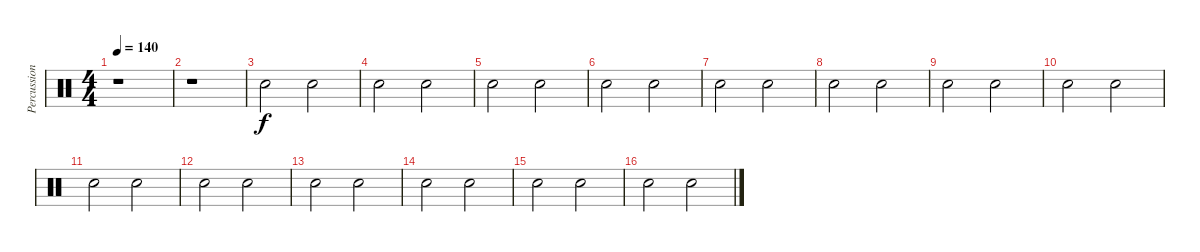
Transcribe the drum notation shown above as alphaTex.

\track ("Percussions" "Percussion") {instrument percussion}
\staff {score}
\articulation defaults
\ts (4 4)
\tempo 140
\clef neutral
\ks c
r.1{dy f} |
r.1 |
"Hand Clap (hit)".2 "Hand Clap (hit)".2 |
"Hand Clap (hit)".2 "Hand Clap (hit)".2 |
"Hand Clap (hit)".2 "Hand Clap (hit)".2 |
"Hand Clap (hit)".2 "Hand Clap (hit)".2 |
"Hand Clap (hit)".2 "Hand Clap (hit)".2 |
"Hand Clap (hit)".2 "Hand Clap (hit)".2 |
"Hand Clap (hit)".2 "Hand Clap (hit)".2 |
"Hand Clap (hit)".2 "Hand Clap (hit)".2 |
"Hand Clap (hit)".2 "Hand Clap (hit)".2 |
"Hand Clap (hit)".2 "Hand Clap (hit)".2 |
"Hand Clap (hit)".2 "Hand Clap (hit)".2 |
"Hand Clap (hit)".2 "Hand Clap (hit)".2 |
"Hand Clap (hit)".2 "Hand Clap (hit)".2 |
"Hand Clap (hit)".2 "Hand Clap (hit)".2
